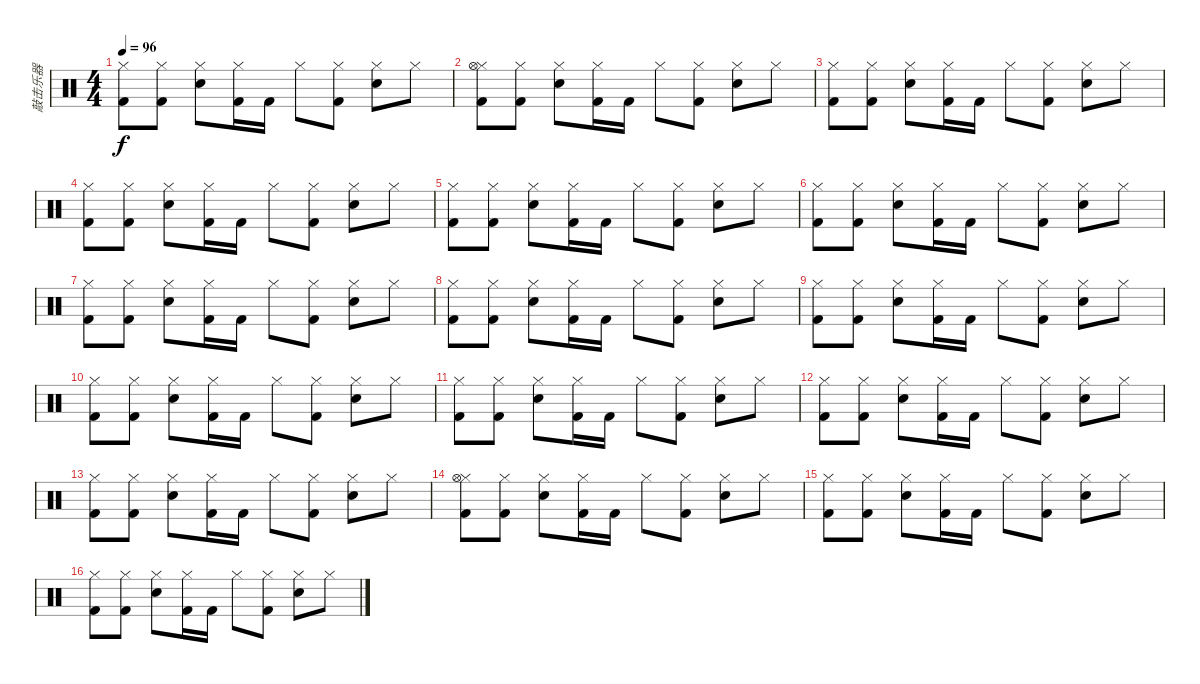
\track ("敲击乐器" "敲击乐器") {instrument percussion}
\staff {score}
\articulation defaults
\ts (4 4)
\tempo 96
\clef neutral
\ks c
("Hi-Hat (closed)" "Kick (hit) 2").8{dy f} ("Hi-Hat (closed)" "Kick (hit) 2").8 ("Hi-Hat (closed)" "Electric Snare (hit)").8 ("Hi-Hat (closed)" "Kick (hit) 2").16 "Kick (hit) 2".16 "Hi-Hat (closed)".8 ("Hi-Hat (closed)" "Kick (hit) 2").8 ("Hi-Hat (closed)" "Electric Snare (hit)").8 "Hi-Hat (closed)".8 |
("Hi-Hat (closed)" "Hi-Hat (open)" "Kick (hit) 2").8 ("Hi-Hat (closed)" "Kick (hit) 2").8 ("Hi-Hat (closed)" "Electric Snare (hit)").8 ("Hi-Hat (closed)" "Kick (hit) 2").16 "Kick (hit) 2".16 "Hi-Hat (closed)".8 ("Hi-Hat (closed)" "Kick (hit) 2").8 ("Hi-Hat (closed)" "Electric Snare (hit)").8 "Hi-Hat (closed)".8 |
("Hi-Hat (closed)" "Kick (hit) 2").8 ("Hi-Hat (closed)" "Kick (hit) 2").8 ("Hi-Hat (closed)" "Electric Snare (hit)").8 ("Hi-Hat (closed)" "Kick (hit) 2").16 "Kick (hit) 2".16 "Hi-Hat (closed)".8 ("Hi-Hat (closed)" "Kick (hit) 2").8 ("Hi-Hat (closed)" "Electric Snare (hit)").8 "Hi-Hat (closed)".8 |
("Hi-Hat (closed)" "Kick (hit) 2").8 ("Hi-Hat (closed)" "Kick (hit) 2").8 ("Hi-Hat (closed)" "Electric Snare (hit)").8 ("Hi-Hat (closed)" "Kick (hit) 2").16 "Kick (hit) 2".16 "Hi-Hat (closed)".8 ("Hi-Hat (closed)" "Kick (hit) 2").8 ("Hi-Hat (closed)" "Electric Snare (hit)").8 "Hi-Hat (closed)".8 |
("Hi-Hat (closed)" "Kick (hit) 2").8 ("Hi-Hat (closed)" "Kick (hit) 2").8 ("Hi-Hat (closed)" "Electric Snare (hit)").8 ("Hi-Hat (closed)" "Kick (hit) 2").16 "Kick (hit) 2".16 "Hi-Hat (closed)".8 ("Hi-Hat (closed)" "Kick (hit) 2").8 ("Hi-Hat (closed)" "Electric Snare (hit)").8 "Hi-Hat (closed)".8 |
("Hi-Hat (closed)" "Kick (hit) 2").8 ("Hi-Hat (closed)" "Kick (hit) 2").8 ("Hi-Hat (closed)" "Electric Snare (hit)").8 ("Hi-Hat (closed)" "Kick (hit) 2").16 "Kick (hit) 2".16 "Hi-Hat (closed)".8 ("Hi-Hat (closed)" "Kick (hit) 2").8 ("Hi-Hat (closed)" "Electric Snare (hit)").8 "Hi-Hat (closed)".8 |
("Hi-Hat (closed)" "Kick (hit) 2").8 ("Hi-Hat (closed)" "Kick (hit) 2").8 ("Hi-Hat (closed)" "Electric Snare (hit)").8 ("Hi-Hat (closed)" "Kick (hit) 2").16 "Kick (hit) 2".16 "Hi-Hat (closed)".8 ("Hi-Hat (closed)" "Kick (hit) 2").8 ("Hi-Hat (closed)" "Electric Snare (hit)").8 "Hi-Hat (closed)".8 |
("Hi-Hat (closed)" "Kick (hit) 2").8 ("Hi-Hat (closed)" "Kick (hit) 2").8 ("Hi-Hat (closed)" "Electric Snare (hit)").8 ("Hi-Hat (closed)" "Kick (hit) 2").16 "Kick (hit) 2".16 "Hi-Hat (closed)".8 ("Hi-Hat (closed)" "Kick (hit) 2").8 ("Hi-Hat (closed)" "Electric Snare (hit)").8 "Hi-Hat (closed)".8 |
("Hi-Hat (closed)" "Kick (hit) 2").8 ("Hi-Hat (closed)" "Kick (hit) 2").8 ("Hi-Hat (closed)" "Electric Snare (hit)").8 ("Hi-Hat (closed)" "Kick (hit) 2").16 "Kick (hit) 2".16 "Hi-Hat (closed)".8 ("Hi-Hat (closed)" "Kick (hit) 2").8 ("Hi-Hat (closed)" "Electric Snare (hit)").8 "Hi-Hat (closed)".8 |
("Hi-Hat (closed)" "Kick (hit) 2").8 ("Hi-Hat (closed)" "Kick (hit) 2").8 ("Hi-Hat (closed)" "Electric Snare (hit)").8 ("Hi-Hat (closed)" "Kick (hit) 2").16 "Kick (hit) 2".16 "Hi-Hat (closed)".8 ("Hi-Hat (closed)" "Kick (hit) 2").8 ("Hi-Hat (closed)" "Electric Snare (hit)").8 "Hi-Hat (closed)".8 |
("Hi-Hat (closed)" "Kick (hit) 2").8 ("Hi-Hat (closed)" "Kick (hit) 2").8 ("Hi-Hat (closed)" "Electric Snare (hit)").8 ("Hi-Hat (closed)" "Kick (hit) 2").16 "Kick (hit) 2".16 "Hi-Hat (closed)".8 ("Hi-Hat (closed)" "Kick (hit) 2").8 ("Hi-Hat (closed)" "Electric Snare (hit)").8 "Hi-Hat (closed)".8 |
("Hi-Hat (closed)" "Kick (hit) 2").8 ("Hi-Hat (closed)" "Kick (hit) 2").8 ("Hi-Hat (closed)" "Electric Snare (hit)").8 ("Hi-Hat (closed)" "Kick (hit) 2").16 "Kick (hit) 2".16 "Hi-Hat (closed)".8 ("Hi-Hat (closed)" "Kick (hit) 2").8 ("Hi-Hat (closed)" "Electric Snare (hit)").8 "Hi-Hat (closed)".8 |
("Hi-Hat (closed)" "Kick (hit) 2").8 ("Hi-Hat (closed)" "Kick (hit) 2").8 ("Hi-Hat (closed)" "Electric Snare (hit)").8 ("Hi-Hat (closed)" "Kick (hit) 2").16 "Kick (hit) 2".16 "Hi-Hat (closed)".8 ("Hi-Hat (closed)" "Kick (hit) 2").8 ("Hi-Hat (closed)" "Electric Snare (hit)").8 "Hi-Hat (closed)".8 |
("Hi-Hat (closed)" "Hi-Hat (open)" "Kick (hit) 2").8 ("Hi-Hat (closed)" "Kick (hit) 2").8 ("Hi-Hat (closed)" "Electric Snare (hit)").8 ("Hi-Hat (closed)" "Kick (hit) 2").16 "Kick (hit) 2".16 "Hi-Hat (closed)".8 ("Hi-Hat (closed)" "Kick (hit) 2").8 ("Hi-Hat (closed)" "Electric Snare (hit)").8 "Hi-Hat (closed)".8 |
("Hi-Hat (closed)" "Kick (hit) 2").8 ("Hi-Hat (closed)" "Kick (hit) 2").8 ("Hi-Hat (closed)" "Electric Snare (hit)").8 ("Hi-Hat (closed)" "Kick (hit) 2").16 "Kick (hit) 2".16 "Hi-Hat (closed)".8 ("Hi-Hat (closed)" "Kick (hit) 2").8 ("Hi-Hat (closed)" "Electric Snare (hit)").8 "Hi-Hat (closed)".8 |
("Hi-Hat (closed)" "Kick (hit) 2").8 ("Hi-Hat (closed)" "Kick (hit) 2").8 ("Hi-Hat (closed)" "Electric Snare (hit)").8 ("Hi-Hat (closed)" "Kick (hit) 2").16 "Kick (hit) 2".16 "Hi-Hat (closed)".8 ("Hi-Hat (closed)" "Kick (hit) 2").8 ("Hi-Hat (closed)" "Electric Snare (hit)").8 "Hi-Hat (closed)".8
